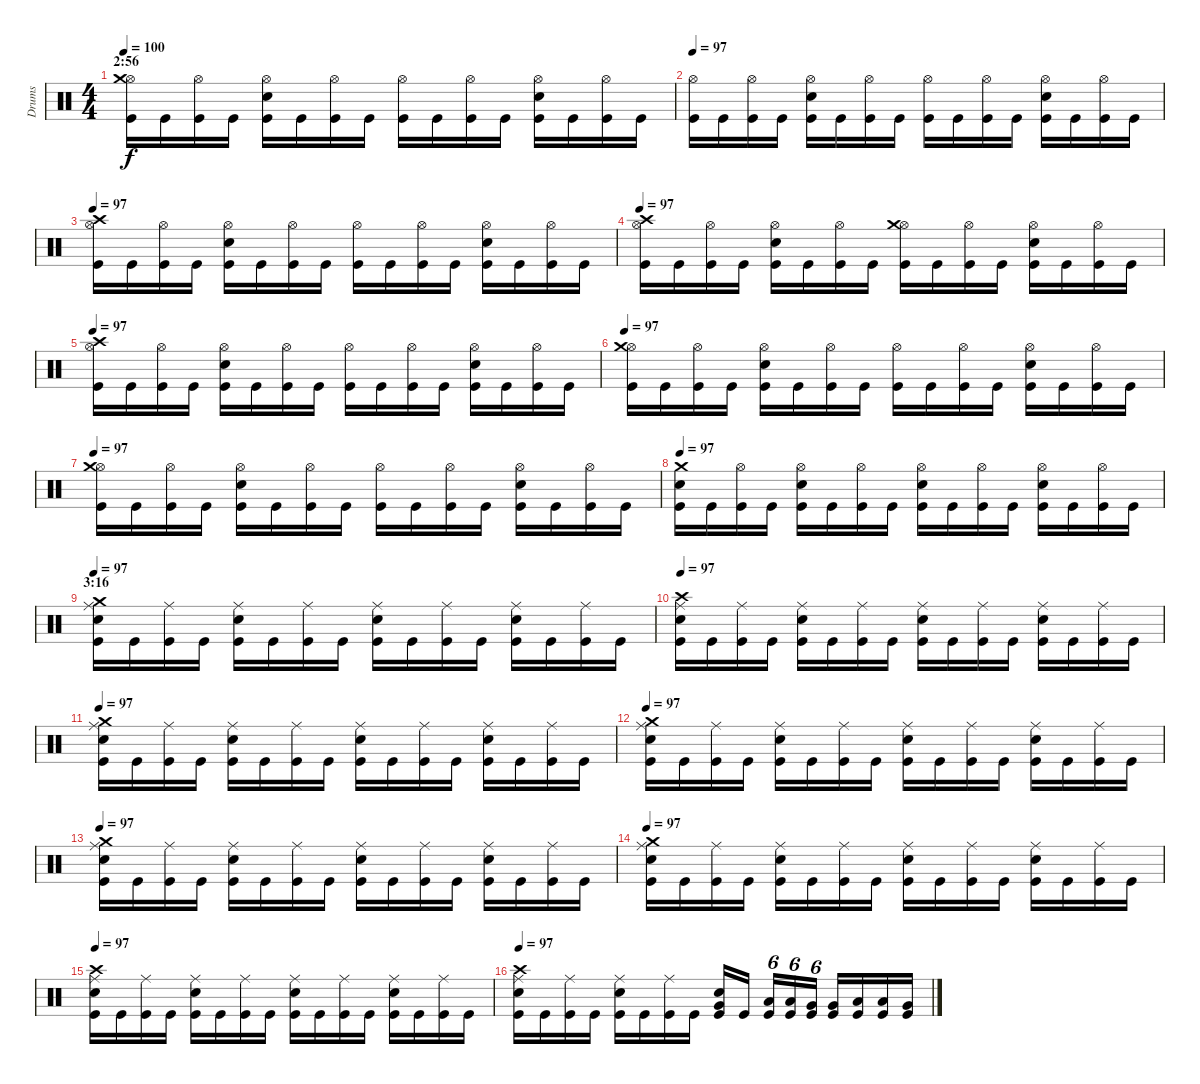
\track ("Drums" "Drums") {instrument percussion}
\staff {score}
\articulation defaults
\ts (4 4)
\section ("" "2:56")
\tempo 100
\clef neutral
\ks c
("Kick (hit)" "Hi-Hat (open)" "Crash medium (hit)").16{dy f} "Kick (hit)".16 ("Kick (hit)" "Hi-Hat (open)").16 "Kick (hit)".16 ("Kick (hit)" "Electric Snare (hit)" "Hi-Hat (open)").16 "Kick (hit)".16 ("Kick (hit)" "Hi-Hat (open)").16 "Kick (hit)".16 ("Kick (hit)" "Hi-Hat (open)").16 "Kick (hit)".16 ("Kick (hit)" "Hi-Hat (open)").16 "Kick (hit)".16 ("Kick (hit)" "Electric Snare (hit)" "Hi-Hat (open)").16 "Kick (hit)".16 ("Kick (hit)" "Hi-Hat (open)").16 "Kick (hit)".16 |
\tempo 100
\tempo 97
("Kick (hit)" "Hi-Hat (open)").16 "Kick (hit)".16 ("Kick (hit)" "Hi-Hat (open)").16 "Kick (hit)".16 ("Kick (hit)" "Electric Snare (hit)" "Hi-Hat (open)").16 "Kick (hit)".16 ("Kick (hit)" "Hi-Hat (open)").16 "Kick (hit)".16 ("Kick (hit)" "Hi-Hat (open)").16 "Kick (hit)".16 ("Kick (hit)" "Hi-Hat (open)").16 "Kick (hit)".16 ("Kick (hit)" "Electric Snare (hit)" "Hi-Hat (open)").16 "Kick (hit)".16 ("Kick (hit)" "Hi-Hat (open)").16 "Kick (hit)".16 |
\tempo 100
\tempo 97
("Kick (hit)" "Hi-Hat (open)" "Crash high (hit)").16 "Kick (hit)".16 ("Kick (hit)" "Hi-Hat (open)").16 "Kick (hit)".16 ("Kick (hit)" "Electric Snare (hit)" "Hi-Hat (open)").16 "Kick (hit)".16 ("Kick (hit)" "Hi-Hat (open)").16 "Kick (hit)".16 ("Kick (hit)" "Hi-Hat (open)").16 "Kick (hit)".16 ("Kick (hit)" "Hi-Hat (open)").16 "Kick (hit)".16 ("Kick (hit)" "Electric Snare (hit)" "Hi-Hat (open)").16 "Kick (hit)".16 ("Kick (hit)" "Hi-Hat (open)").16 "Kick (hit)".16 |
\tempo 100
\tempo 97
("Kick (hit)" "Hi-Hat (open)" "Crash high (hit)").16 "Kick (hit)".16 ("Kick (hit)" "Hi-Hat (open)").16 "Kick (hit)".16 ("Kick (hit)" "Electric Snare (hit)" "Hi-Hat (open)").16 "Kick (hit)".16 ("Kick (hit)" "Hi-Hat (open)").16 "Kick (hit)".16 ("Kick (hit)" "Hi-Hat (open)" "Crash medium (hit)").16 "Kick (hit)".16 ("Kick (hit)" "Hi-Hat (open)").16 "Kick (hit)".16 ("Kick (hit)" "Electric Snare (hit)" "Hi-Hat (open)").16 "Kick (hit)".16 ("Kick (hit)" "Hi-Hat (open)").16 "Kick (hit)".16 |
\tempo 100
\tempo 97
("Kick (hit)" "Hi-Hat (open)" "Crash high (hit)").16 "Kick (hit)".16 ("Kick (hit)" "Hi-Hat (open)").16 "Kick (hit)".16 ("Kick (hit)" "Electric Snare (hit)" "Hi-Hat (open)").16 "Kick (hit)".16 ("Kick (hit)" "Hi-Hat (open)").16 "Kick (hit)".16 ("Kick (hit)" "Hi-Hat (open)").16 "Kick (hit)".16 ("Kick (hit)" "Hi-Hat (open)").16 "Kick (hit)".16 ("Kick (hit)" "Electric Snare (hit)" "Hi-Hat (open)").16 "Kick (hit)".16 ("Kick (hit)" "Hi-Hat (open)").16 "Kick (hit)".16 |
\tempo 100
\tempo 97
("Kick (hit)" "Hi-Hat (open)" "Crash medium (hit)").16 "Kick (hit)".16 ("Kick (hit)" "Hi-Hat (open)").16 "Kick (hit)".16 ("Kick (hit)" "Electric Snare (hit)" "Hi-Hat (open)").16 "Kick (hit)".16 ("Kick (hit)" "Hi-Hat (open)").16 "Kick (hit)".16 ("Kick (hit)" "Hi-Hat (open)").16 "Kick (hit)".16 ("Kick (hit)" "Hi-Hat (open)").16 "Kick (hit)".16 ("Kick (hit)" "Electric Snare (hit)" "Hi-Hat (open)").16 "Kick (hit)".16 ("Kick (hit)" "Hi-Hat (open)").16 "Kick (hit)".16 |
\tempo 100
\tempo 97
("Kick (hit)" "Hi-Hat (open)" "Crash medium (hit)").16 "Kick (hit)".16 ("Kick (hit)" "Hi-Hat (open)").16 "Kick (hit)".16 ("Kick (hit)" "Electric Snare (hit)" "Hi-Hat (open)").16 "Kick (hit)".16 ("Kick (hit)" "Hi-Hat (open)").16 "Kick (hit)".16 ("Kick (hit)" "Hi-Hat (open)").16 "Kick (hit)".16 ("Kick (hit)" "Hi-Hat (open)").16 "Kick (hit)".16 ("Kick (hit)" "Electric Snare (hit)" "Hi-Hat (open)").16 "Kick (hit)".16 ("Kick (hit)" "Hi-Hat (open)").16 "Kick (hit)".16 |
\tempo 100
\tempo 97
("Kick (hit)" "Electric Snare (hit)" "Crash medium (hit)").16 "Kick (hit)".16 ("Kick (hit)" "Hi-Hat (open)").16 "Kick (hit)".16 ("Kick (hit)" "Electric Snare (hit)" "Hi-Hat (open)").16 "Kick (hit)".16 ("Kick (hit)" "Hi-Hat (open)").16 "Kick (hit)".16 ("Kick (hit)" "Electric Snare (hit)" "Hi-Hat (open)").16 "Kick (hit)".16 ("Kick (hit)" "Hi-Hat (open)").16 "Kick (hit)".16 ("Kick (hit)" "Electric Snare (hit)" "Hi-Hat (open)").16 "Kick (hit)".16 ("Kick (hit)" "Hi-Hat (open)").16 "Kick (hit)".16 |
\section ("" "3:16")
\tempo 100
\tempo 97
("Kick (hit)" "Electric Snare (hit)" "Ride (middle)" "Crash medium (hit)").16 "Kick (hit)".16 ("Kick (hit)" "Ride (middle)").16 "Kick (hit)".16 ("Kick (hit)" "Electric Snare (hit)" "Ride (middle)").16 "Kick (hit)".16 ("Kick (hit)" "Ride (middle)").16 "Kick (hit)".16 ("Kick (hit)" "Electric Snare (hit)" "Ride (middle)").16 "Kick (hit)".16 ("Kick (hit)" "Ride (middle)").16 "Kick (hit)".16 ("Kick (hit)" "Electric Snare (hit)" "Ride (middle)").16 "Kick (hit)".16 ("Kick (hit)" "Ride (middle)").16 "Kick (hit)".16 |
\tempo 100
\tempo 97
("Kick (hit)" "Electric Snare (hit)" "Ride (middle)" "Crash high (hit)").16 "Kick (hit)".16 ("Kick (hit)" "Ride (middle)").16 "Kick (hit)".16 ("Kick (hit)" "Electric Snare (hit)" "Ride (middle)").16 "Kick (hit)".16 ("Kick (hit)" "Ride (middle)").16 "Kick (hit)".16 ("Kick (hit)" "Electric Snare (hit)" "Ride (middle)").16 "Kick (hit)".16 ("Kick (hit)" "Ride (middle)").16 "Kick (hit)".16 ("Kick (hit)" "Electric Snare (hit)" "Ride (middle)").16 "Kick (hit)".16 ("Kick (hit)" "Ride (middle)").16 "Kick (hit)".16 |
\tempo 100
\tempo 97
("Kick (hit)" "Electric Snare (hit)" "Ride (middle)" "Crash medium (hit)").16 "Kick (hit)".16 ("Kick (hit)" "Ride (middle)").16 "Kick (hit)".16 ("Kick (hit)" "Electric Snare (hit)" "Ride (middle)").16 "Kick (hit)".16 ("Kick (hit)" "Ride (middle)").16 "Kick (hit)".16 ("Kick (hit)" "Electric Snare (hit)" "Ride (middle)").16 "Kick (hit)".16 ("Kick (hit)" "Ride (middle)").16 "Kick (hit)".16 ("Kick (hit)" "Electric Snare (hit)" "Ride (middle)").16 "Kick (hit)".16 ("Kick (hit)" "Ride (middle)").16 "Kick (hit)".16 |
\tempo 100
\tempo 97
("Kick (hit)" "Electric Snare (hit)" "Ride (middle)" "Crash medium (hit)").16 "Kick (hit)".16 ("Kick (hit)" "Ride (middle)").16 "Kick (hit)".16 ("Kick (hit)" "Electric Snare (hit)" "Ride (middle)").16 "Kick (hit)".16 ("Kick (hit)" "Ride (middle)").16 "Kick (hit)".16 ("Kick (hit)" "Electric Snare (hit)" "Ride (middle)").16 "Kick (hit)".16 ("Kick (hit)" "Ride (middle)").16 "Kick (hit)".16 ("Kick (hit)" "Electric Snare (hit)" "Ride (middle)").16 "Kick (hit)".16 ("Kick (hit)" "Ride (middle)").16 "Kick (hit)".16 |
\tempo 100
\tempo 97
("Kick (hit)" "Electric Snare (hit)" "Ride (middle)" "Crash medium (hit)").16 "Kick (hit)".16 ("Kick (hit)" "Ride (middle)").16 "Kick (hit)".16 ("Kick (hit)" "Electric Snare (hit)" "Ride (middle)").16 "Kick (hit)".16 ("Kick (hit)" "Ride (middle)").16 "Kick (hit)".16 ("Kick (hit)" "Electric Snare (hit)" "Ride (middle)").16 "Kick (hit)".16 ("Kick (hit)" "Ride (middle)").16 "Kick (hit)".16 ("Kick (hit)" "Electric Snare (hit)" "Ride (middle)").16 "Kick (hit)".16 ("Kick (hit)" "Ride (middle)").16 "Kick (hit)".16 |
\tempo 100
\tempo 97
("Kick (hit)" "Electric Snare (hit)" "Ride (middle)" "Crash medium (hit)").16 "Kick (hit)".16 ("Kick (hit)" "Ride (middle)").16 "Kick (hit)".16 ("Kick (hit)" "Electric Snare (hit)" "Ride (middle)").16 "Kick (hit)".16 ("Kick (hit)" "Ride (middle)").16 "Kick (hit)".16 ("Kick (hit)" "Electric Snare (hit)" "Ride (middle)").16 "Kick (hit)".16 ("Kick (hit)" "Ride (middle)").16 "Kick (hit)".16 ("Kick (hit)" "Electric Snare (hit)" "Ride (middle)").16 "Kick (hit)".16 ("Kick (hit)" "Ride (middle)").16 "Kick (hit)".16 |
\tempo 100
\tempo 97
("Kick (hit)" "Electric Snare (hit)" "Ride (middle)" "Crash high (hit)").16 "Kick (hit)".16 ("Kick (hit)" "Ride (middle)").16 "Kick (hit)".16 ("Kick (hit)" "Electric Snare (hit)" "Ride (middle)").16 "Kick (hit)".16 ("Kick (hit)" "Ride (middle)").16 "Kick (hit)".16 ("Kick (hit)" "Electric Snare (hit)" "Ride (middle)").16 "Kick (hit)".16 ("Kick (hit)" "Ride (middle)").16 "Kick (hit)".16 ("Kick (hit)" "Electric Snare (hit)" "Ride (middle)").16 "Kick (hit)".16 ("Kick (hit)" "Ride (middle)").16 "Kick (hit)".16 |
\tempo 100
\tempo 97
("Kick (hit)" "Electric Snare (hit)" "Ride (middle)" "Crash high (hit)").16 "Kick (hit)".16 ("Kick (hit)" "Ride (middle)").16 "Kick (hit)".16 ("Kick (hit)" "Electric Snare (hit)" "Ride (middle)").16 "Kick (hit)".16 ("Kick (hit)" "Ride (middle)").16 "Kick (hit)".16 ("Kick (hit)" "Electric Snare (hit)" "Very Low Tom (hit)").16 "Kick (hit)".16 ("Kick (hit)" "Low Tom (hit)").16{tu (6 4)} ("Kick (hit)" "Low Tom (hit)").16{tu (6 4)} ("Kick (hit)" "Very Low Tom (hit)").16{tu (6 4)} ("Kick (hit)" "Very Low Tom (hit)").16 ("Kick (hit)" "Low Tom (hit)").16 ("Kick (hit)" "Low Tom (hit)").16 ("Kick (hit)" "Very Low Tom (hit)").16
